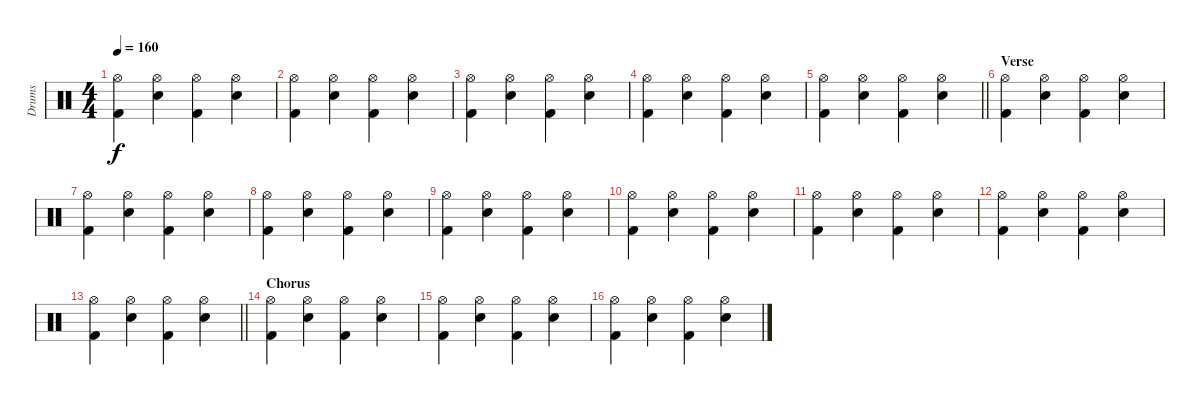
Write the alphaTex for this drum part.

\track ("Drums" "Drums") {instrument percussion}
\staff {score}
\articulation defaults
\ts (4 4)
\tempo 160
\clef neutral
\ks c
("Hi-Hat (open)" "Kick (hit) 2").4{dy f} ("Hi-Hat (open)" "Electric Snare (hit)").4 ("Hi-Hat (open)" "Kick (hit) 2").4 ("Hi-Hat (open)" "Electric Snare (hit)").4 |
("Hi-Hat (open)" "Kick (hit) 2").4 ("Hi-Hat (open)" "Electric Snare (hit)").4 ("Hi-Hat (open)" "Kick (hit) 2").4 ("Hi-Hat (open)" "Electric Snare (hit)").4 |
("Hi-Hat (open)" "Kick (hit) 2").4 ("Hi-Hat (open)" "Electric Snare (hit)").4 ("Hi-Hat (open)" "Kick (hit) 2").4 ("Hi-Hat (open)" "Electric Snare (hit)").4 |
("Hi-Hat (open)" "Kick (hit) 2").4 ("Hi-Hat (open)" "Electric Snare (hit)").4 ("Hi-Hat (open)" "Kick (hit) 2").4 ("Hi-Hat (open)" "Electric Snare (hit)").4 |
\barLineRight lightlight
("Hi-Hat (open)" "Kick (hit) 2").4 ("Hi-Hat (open)" "Electric Snare (hit)").4 ("Hi-Hat (open)" "Kick (hit) 2").4 ("Hi-Hat (open)" "Electric Snare (hit)").4 |
\section ("" "Verse")
("Hi-Hat (open)" "Kick (hit) 2").4 ("Hi-Hat (open)" "Electric Snare (hit)").4 ("Hi-Hat (open)" "Kick (hit) 2").4 ("Hi-Hat (open)" "Electric Snare (hit)").4 |
("Hi-Hat (open)" "Kick (hit) 2").4 ("Hi-Hat (open)" "Electric Snare (hit)").4 ("Hi-Hat (open)" "Kick (hit) 2").4 ("Hi-Hat (open)" "Electric Snare (hit)").4 |
("Hi-Hat (open)" "Kick (hit) 2").4 ("Hi-Hat (open)" "Electric Snare (hit)").4 ("Hi-Hat (open)" "Kick (hit) 2").4 ("Hi-Hat (open)" "Electric Snare (hit)").4 |
("Hi-Hat (open)" "Kick (hit) 2").4 ("Hi-Hat (open)" "Electric Snare (hit)").4 ("Hi-Hat (open)" "Kick (hit) 2").4 ("Hi-Hat (open)" "Electric Snare (hit)").4 |
("Hi-Hat (open)" "Kick (hit) 2").4 ("Hi-Hat (open)" "Electric Snare (hit)").4 ("Hi-Hat (open)" "Kick (hit) 2").4 ("Hi-Hat (open)" "Electric Snare (hit)").4 |
("Hi-Hat (open)" "Kick (hit) 2").4 ("Hi-Hat (open)" "Electric Snare (hit)").4 ("Hi-Hat (open)" "Kick (hit) 2").4 ("Hi-Hat (open)" "Electric Snare (hit)").4 |
("Hi-Hat (open)" "Kick (hit) 2").4 ("Hi-Hat (open)" "Electric Snare (hit)").4 ("Hi-Hat (open)" "Kick (hit) 2").4 ("Hi-Hat (open)" "Electric Snare (hit)").4 |
\barLineRight lightlight
("Hi-Hat (open)" "Kick (hit) 2").4 ("Hi-Hat (open)" "Electric Snare (hit)").4 ("Hi-Hat (open)" "Kick (hit) 2").4 ("Hi-Hat (open)" "Electric Snare (hit)").4 |
\section ("" "Chorus")
("Hi-Hat (open)" "Kick (hit) 2").4 ("Hi-Hat (open)" "Electric Snare (hit)").4 ("Hi-Hat (open)" "Kick (hit) 2").4 ("Hi-Hat (open)" "Electric Snare (hit)").4 |
("Hi-Hat (open)" "Kick (hit) 2").4 ("Hi-Hat (open)" "Electric Snare (hit)").4 ("Hi-Hat (open)" "Kick (hit) 2").4 ("Hi-Hat (open)" "Electric Snare (hit)").4 |
("Hi-Hat (open)" "Kick (hit) 2").4 ("Hi-Hat (open)" "Electric Snare (hit)").4 ("Hi-Hat (open)" "Kick (hit) 2").4 ("Hi-Hat (open)" "Electric Snare (hit)").4
